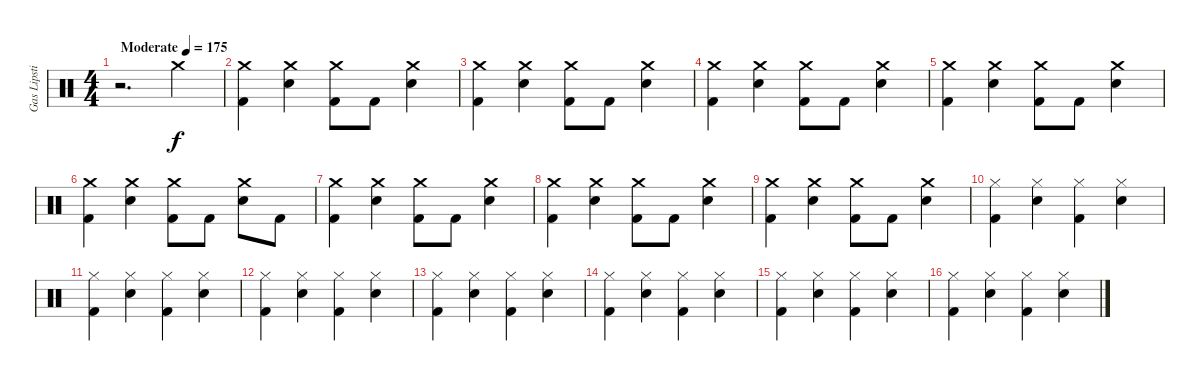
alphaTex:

\track ("Gas Lipstick" "Gas Lipsti") {instrument percussion}
\staff {score}
\articulation defaults
\ts (4 4)
\tempo (175 "Moderate")
\clef neutral
\ks c
r.2{d dy f} "Crash medium (hit)".4 |
("Kick (hit) 2" "Crash medium (hit)").4 ("Snare (hit) 2" "Crash medium (hit)").4 ("Kick (hit) 2" "Crash medium (hit)").8 "Kick (hit) 2".8 ("Snare (hit) 2" "Crash medium (hit)").4 |
("Kick (hit) 2" "Crash medium (hit)").4 ("Snare (hit) 2" "Crash medium (hit)").4 ("Kick (hit) 2" "Crash medium (hit)").8 "Kick (hit) 2".8 ("Snare (hit) 2" "Crash medium (hit)").4 |
("Kick (hit) 2" "Crash medium (hit)").4 ("Snare (hit) 2" "Crash medium (hit)").4 ("Kick (hit) 2" "Crash medium (hit)").8 "Kick (hit) 2".8 ("Snare (hit) 2" "Crash medium (hit)").4 |
("Kick (hit) 2" "Crash medium (hit)").4 ("Snare (hit) 2" "Crash medium (hit)").4 ("Kick (hit) 2" "Crash medium (hit)").8 "Kick (hit) 2".8 ("Snare (hit) 2" "Crash medium (hit)").4 |
("Kick (hit) 2" "Crash medium (hit)").4 ("Snare (hit) 2" "Crash medium (hit)").4 ("Kick (hit) 2" "Crash medium (hit)").8 "Kick (hit) 2".8 ("Snare (hit) 2" "Crash medium (hit)").8 "Kick (hit) 2".8 |
("Kick (hit) 2" "Crash medium (hit)").4 ("Snare (hit) 2" "Crash medium (hit)").4 ("Kick (hit) 2" "Crash medium (hit)").8 "Kick (hit) 2".8 ("Snare (hit) 2" "Crash medium (hit)").4 |
("Kick (hit) 2" "Crash medium (hit)").4 ("Snare (hit) 2" "Crash medium (hit)").4 ("Kick (hit) 2" "Crash medium (hit)").8 "Kick (hit) 2".8 ("Snare (hit) 2" "Crash medium (hit)").4 |
("Kick (hit) 2" "Crash medium (hit)").4 ("Snare (hit) 2" "Crash medium (hit)").4 ("Kick (hit) 2" "Crash medium (hit)").8 "Kick (hit) 2".8 ("Snare (hit) 2" "Crash medium (hit)").4 |
("Kick (hit) 2" "Hi-Hat (closed)").4 ("Snare (hit) 2" "Hi-Hat (closed)").4 ("Kick (hit) 2" "Hi-Hat (closed)").4 ("Snare (hit) 2" "Hi-Hat (closed)").4 |
("Kick (hit) 2" "Hi-Hat (closed)").4 ("Snare (hit) 2" "Hi-Hat (closed)").4 ("Kick (hit) 2" "Hi-Hat (closed)").4 ("Snare (hit) 2" "Hi-Hat (closed)").4 |
("Kick (hit) 2" "Hi-Hat (closed)").4 ("Snare (hit) 2" "Hi-Hat (closed)").4 ("Kick (hit) 2" "Hi-Hat (closed)").4 ("Snare (hit) 2" "Hi-Hat (closed)").4 |
("Kick (hit) 2" "Hi-Hat (closed)").4 ("Snare (hit) 2" "Hi-Hat (closed)").4 ("Kick (hit) 2" "Hi-Hat (closed)").4 ("Snare (hit) 2" "Hi-Hat (closed)").4 |
("Kick (hit) 2" "Hi-Hat (closed)").4 ("Snare (hit) 2" "Hi-Hat (closed)").4 ("Kick (hit) 2" "Hi-Hat (closed)").4 ("Snare (hit) 2" "Hi-Hat (closed)").4 |
("Kick (hit) 2" "Hi-Hat (closed)").4 ("Snare (hit) 2" "Hi-Hat (closed)").4 ("Kick (hit) 2" "Hi-Hat (closed)").4 ("Snare (hit) 2" "Hi-Hat (closed)").4 |
("Kick (hit) 2" "Hi-Hat (closed)").4 ("Snare (hit) 2" "Hi-Hat (closed)").4 ("Kick (hit) 2" "Hi-Hat (closed)").4 ("Snare (hit) 2" "Hi-Hat (closed)").4
